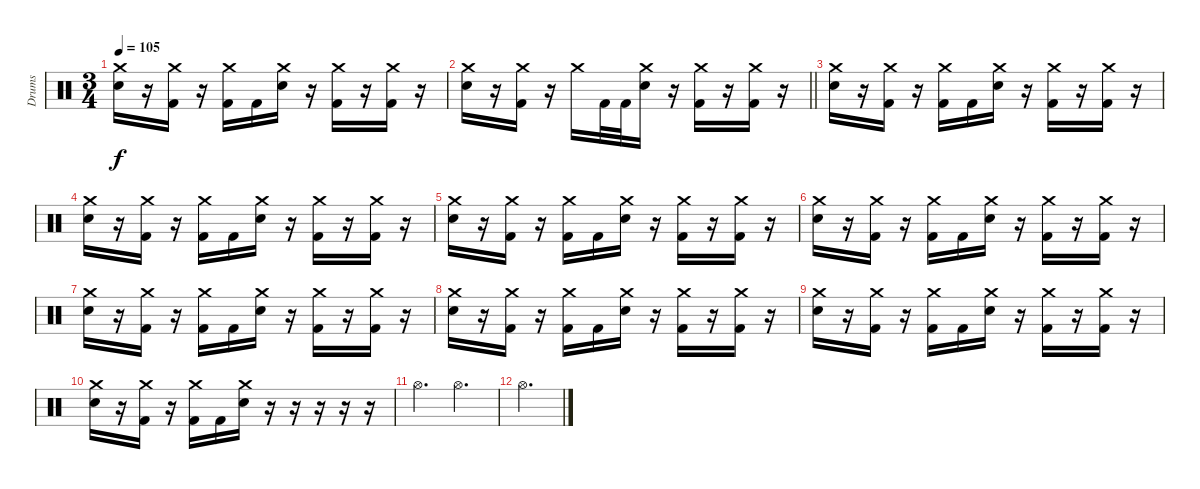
\track ("Drums" "Drums") {instrument percussion}
\staff {score}
\articulation defaults
\ts (3 4)
\tempo 105
\clef neutral
\ks c
("Crash medium (hit)" "Electric Snare (hit)").16{dy f} r.16 ("Crash medium (hit)" "Kick (hit) 2").16 r.16 ("Crash medium (hit)" "Kick (hit) 2").16 "Kick (hit) 2".16 ("Crash medium (hit)" "Electric Snare (hit)").16 r.16 ("Crash medium (hit)" "Kick (hit) 2").16 r.16 ("Crash medium (hit)" "Kick (hit) 2").16 r.16 |
\barLineRight lightlight
("Crash medium (hit)" "Electric Snare (hit)").16 r.16 ("Crash medium (hit)" "Kick (hit) 2").16 r.16 "Crash medium (hit)".16 "Kick (hit) 2".32 "Kick (hit) 2".32 ("Crash medium (hit)" "Electric Snare (hit)").16 r.16 ("Crash medium (hit)" "Kick (hit) 2").16 r.16 ("Crash medium (hit)" "Kick (hit) 2").16 r.16 |
\section ("" "")
("Crash medium (hit)" "Electric Snare (hit)").16 r.16 ("Crash medium (hit)" "Kick (hit) 2").16 r.16 ("Crash medium (hit)" "Kick (hit) 2").16 "Kick (hit) 2".16 ("Crash medium (hit)" "Electric Snare (hit)").16 r.16 ("Crash medium (hit)" "Kick (hit) 2").16 r.16 ("Crash medium (hit)" "Kick (hit) 2").16 r.16 |
("Crash medium (hit)" "Electric Snare (hit)").16 r.16 ("Crash medium (hit)" "Kick (hit) 2").16 r.16 ("Crash medium (hit)" "Kick (hit) 2").16 "Kick (hit) 2".16 ("Crash medium (hit)" "Electric Snare (hit)").16 r.16 ("Crash medium (hit)" "Kick (hit) 2").16 r.16 ("Crash medium (hit)" "Kick (hit) 2").16 r.16 |
("Crash medium (hit)" "Electric Snare (hit)").16 r.16 ("Crash medium (hit)" "Kick (hit) 2").16 r.16 ("Crash medium (hit)" "Kick (hit) 2").16 "Kick (hit) 2".16 ("Crash medium (hit)" "Electric Snare (hit)").16 r.16 ("Crash medium (hit)" "Kick (hit) 2").16 r.16 ("Crash medium (hit)" "Kick (hit) 2").16 r.16 |
("Crash medium (hit)" "Electric Snare (hit)").16 r.16 ("Crash medium (hit)" "Kick (hit) 2").16 r.16 ("Crash medium (hit)" "Kick (hit) 2").16 "Kick (hit) 2".16 ("Crash medium (hit)" "Electric Snare (hit)").16 r.16 ("Crash medium (hit)" "Kick (hit) 2").16 r.16 ("Crash medium (hit)" "Kick (hit) 2").16 r.16 |
("Crash medium (hit)" "Electric Snare (hit)").16 r.16 ("Crash medium (hit)" "Kick (hit) 2").16 r.16 ("Crash medium (hit)" "Kick (hit) 2").16 "Kick (hit) 2".16 ("Crash medium (hit)" "Electric Snare (hit)").16 r.16 ("Crash medium (hit)" "Kick (hit) 2").16 r.16 ("Crash medium (hit)" "Kick (hit) 2").16 r.16 |
("Crash medium (hit)" "Electric Snare (hit)").16 r.16 ("Crash medium (hit)" "Kick (hit) 2").16 r.16 ("Crash medium (hit)" "Kick (hit) 2").16 "Kick (hit) 2".16 ("Crash medium (hit)" "Electric Snare (hit)").16 r.16 ("Crash medium (hit)" "Kick (hit) 2").16 r.16 ("Crash medium (hit)" "Kick (hit) 2").16 r.16 |
("Crash medium (hit)" "Electric Snare (hit)").16 r.16 ("Crash medium (hit)" "Kick (hit) 2").16 r.16 ("Crash medium (hit)" "Kick (hit) 2").16 "Kick (hit) 2".16 ("Crash medium (hit)" "Electric Snare (hit)").16 r.16 ("Crash medium (hit)" "Kick (hit) 2").16 r.16 ("Crash medium (hit)" "Kick (hit) 2").16 r.16 |
("Crash medium (hit)" "Electric Snare (hit)").16 r.16 ("Crash medium (hit)" "Kick (hit) 2").16 r.16 ("Crash medium (hit)" "Kick (hit) 2").16 "Kick (hit) 2".16 ("Crash medium (hit)" "Electric Snare (hit)").16 r.16 r.16 r.16 r.16 r.16 |
"Hi-Hat (open)".4{d} "Hi-Hat (open)".4{d} |
"Hi-Hat (open)".4{d}
